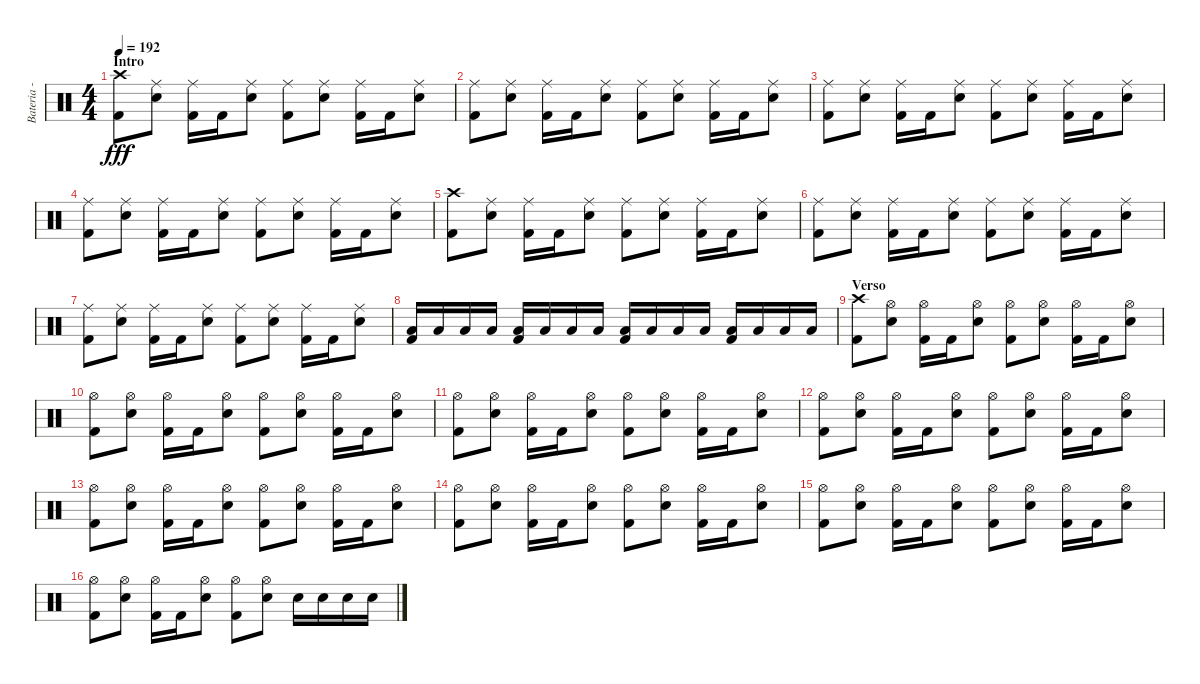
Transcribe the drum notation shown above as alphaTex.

\track ("Bateria - Larzon" "Bateria - ") {instrument percussion}
\staff {score}
\articulation defaults
\ts (4 4)
\section ("" "Intro")
\tempo 192
\clef neutral
\ks c
("Kick (hit) 2" "Crash high (hit)").8{dy fff} ("Electric Snare (hit)" "Ride (middle)").8 ("Ride (middle)" "Kick (hit) 2").16 "Kick (hit) 2".16 ("Electric Snare (hit)" "Ride (middle)").8 ("Kick (hit) 2" "Ride (middle)").8 ("Electric Snare (hit)" "Ride (middle)").8 ("Kick (hit) 2" "Ride (middle)").16 "Kick (hit) 2".16 ("Electric Snare (hit)" "Ride (middle)").8 |
("Kick (hit) 2" "Ride (middle)").8 ("Electric Snare (hit)" "Ride (middle)").8 ("Kick (hit) 2" "Ride (middle)").16 "Kick (hit) 2".16 ("Electric Snare (hit)" "Ride (middle)").8 ("Kick (hit) 2" "Ride (middle)").8 ("Electric Snare (hit)" "Ride (middle)").8 ("Kick (hit) 2" "Ride (middle)").16 "Kick (hit) 2".16 ("Electric Snare (hit)" "Ride (middle)").8 |
("Kick (hit) 2" "Ride (middle)").8 ("Electric Snare (hit)" "Ride (middle)").8 ("Kick (hit) 2" "Ride (middle)").16 "Kick (hit) 2".16 ("Electric Snare (hit)" "Ride (middle)").8 ("Kick (hit) 2" "Ride (middle)").8 ("Electric Snare (hit)" "Ride (middle)").8 ("Kick (hit) 2" "Ride (middle)").16 "Kick (hit) 2".16 ("Electric Snare (hit)" "Ride (middle)").8 |
("Kick (hit) 2" "Ride (middle)").8 ("Electric Snare (hit)" "Ride (middle)").8 ("Kick (hit) 2" "Ride (middle)").16 "Kick (hit) 2".16 ("Electric Snare (hit)" "Ride (middle)").8 ("Kick (hit) 2" "Ride (middle)").8 ("Electric Snare (hit)" "Ride (middle)").8 ("Kick (hit) 2" "Ride (middle)").16 "Kick (hit) 2".16 ("Electric Snare (hit)" "Ride (middle)").8 |
("Kick (hit) 2" "Crash high (hit)").8 ("Electric Snare (hit)" "Ride (middle)").8 ("Ride (middle)" "Kick (hit) 2").16 "Kick (hit) 2".16 ("Electric Snare (hit)" "Ride (middle)").8 ("Kick (hit) 2" "Ride (middle)").8 ("Electric Snare (hit)" "Ride (middle)").8 ("Kick (hit) 2" "Ride (middle)").16 "Kick (hit) 2".16 ("Electric Snare (hit)" "Ride (middle)").8 |
("Kick (hit) 2" "Ride (middle)").8 ("Electric Snare (hit)" "Ride (middle)").8 ("Kick (hit) 2" "Ride (middle)").16 "Kick (hit) 2".16 ("Electric Snare (hit)" "Ride (middle)").8 ("Kick (hit) 2" "Ride (middle)").8 ("Electric Snare (hit)" "Ride (middle)").8 ("Kick (hit) 2" "Ride (middle)").16 "Kick (hit) 2".16 ("Electric Snare (hit)" "Ride (middle)").8 |
("Kick (hit) 2" "Ride (middle)").8 ("Electric Snare (hit)" "Ride (middle)").8 ("Kick (hit) 2" "Ride (middle)").16 "Kick (hit) 2".16 ("Electric Snare (hit)" "Ride (middle)").8 ("Kick (hit) 2" "Ride (middle)").8 ("Electric Snare (hit)" "Ride (middle)").8 ("Kick (hit) 2" "Ride (middle)").16 "Kick (hit) 2".16 ("Electric Snare (hit)" "Ride (middle)").8 |
("Kick (hit) 2" "Low Tom (hit)").16 "Low Tom (hit)".16 "Low Tom (hit)".16 "Low Tom (hit)".16 ("Kick (hit) 2" "Low Tom (hit)").16 "Low Tom (hit)".16 "Low Tom (hit)".16 "Low Tom (hit)".16 ("Kick (hit) 2" "Low Tom (hit)").16 "Low Tom (hit)".16 "Low Tom (hit)".16 "Low Tom (hit)".16 ("Kick (hit) 2" "Low Tom (hit)").16 "Low Tom (hit)".16 "Low Tom (hit)".16 "Low Tom (hit)".16 |
\section ("" "Verso")
("Kick (hit) 2" "Crash high (hit)").8 ("Electric Snare (hit)" "Hi-Hat (open)").8 ("Kick (hit) 2" "Hi-Hat (open)").16 "Kick (hit) 2".16 ("Electric Snare (hit)" "Hi-Hat (open)").8 ("Kick (hit) 2" "Hi-Hat (open)").8 ("Electric Snare (hit)" "Hi-Hat (open)").8 ("Kick (hit) 2" "Hi-Hat (open)").16 "Kick (hit) 2".16 ("Electric Snare (hit)" "Hi-Hat (open)").8 |
("Kick (hit) 2" "Hi-Hat (open)").8 ("Electric Snare (hit)" "Hi-Hat (open)").8 ("Kick (hit) 2" "Hi-Hat (open)").16 "Kick (hit) 2".16 ("Electric Snare (hit)" "Hi-Hat (open)").8 ("Kick (hit) 2" "Hi-Hat (open)").8 ("Electric Snare (hit)" "Hi-Hat (open)").8 ("Kick (hit) 2" "Hi-Hat (open)").16 "Kick (hit) 2".16 ("Electric Snare (hit)" "Hi-Hat (open)").8 |
("Kick (hit) 2" "Hi-Hat (open)").8 ("Electric Snare (hit)" "Hi-Hat (open)").8 ("Kick (hit) 2" "Hi-Hat (open)").16 "Kick (hit) 2".16 ("Electric Snare (hit)" "Hi-Hat (open)").8 ("Kick (hit) 2" "Hi-Hat (open)").8 ("Electric Snare (hit)" "Hi-Hat (open)").8 ("Kick (hit) 2" "Hi-Hat (open)").16 "Kick (hit) 2".16 ("Electric Snare (hit)" "Hi-Hat (open)").8 |
("Kick (hit) 2" "Hi-Hat (open)").8 ("Electric Snare (hit)" "Hi-Hat (open)").8 ("Kick (hit) 2" "Hi-Hat (open)").16 "Kick (hit) 2".16 ("Electric Snare (hit)" "Hi-Hat (open)").8 ("Kick (hit) 2" "Hi-Hat (open)").8 ("Electric Snare (hit)" "Hi-Hat (open)").8 ("Kick (hit) 2" "Hi-Hat (open)").16 "Kick (hit) 2".16 ("Electric Snare (hit)" "Hi-Hat (open)").8 |
("Kick (hit) 2" "Hi-Hat (open)").8 ("Electric Snare (hit)" "Hi-Hat (open)").8 ("Kick (hit) 2" "Hi-Hat (open)").16 "Kick (hit) 2".16 ("Electric Snare (hit)" "Hi-Hat (open)").8 ("Kick (hit) 2" "Hi-Hat (open)").8 ("Electric Snare (hit)" "Hi-Hat (open)").8 ("Kick (hit) 2" "Hi-Hat (open)").16 "Kick (hit) 2".16 ("Electric Snare (hit)" "Hi-Hat (open)").8 |
("Kick (hit) 2" "Hi-Hat (open)").8 ("Electric Snare (hit)" "Hi-Hat (open)").8 ("Kick (hit) 2" "Hi-Hat (open)").16 "Kick (hit) 2".16 ("Electric Snare (hit)" "Hi-Hat (open)").8 ("Kick (hit) 2" "Hi-Hat (open)").8 ("Electric Snare (hit)" "Hi-Hat (open)").8 ("Kick (hit) 2" "Hi-Hat (open)").16 "Kick (hit) 2".16 ("Electric Snare (hit)" "Hi-Hat (open)").8 |
("Kick (hit) 2" "Hi-Hat (open)").8 ("Electric Snare (hit)" "Hi-Hat (open)").8 ("Kick (hit) 2" "Hi-Hat (open)").16 "Kick (hit) 2".16 ("Electric Snare (hit)" "Hi-Hat (open)").8 ("Kick (hit) 2" "Hi-Hat (open)").8 ("Electric Snare (hit)" "Hi-Hat (open)").8 ("Kick (hit) 2" "Hi-Hat (open)").16 "Kick (hit) 2".16 ("Electric Snare (hit)" "Hi-Hat (open)").8 |
("Kick (hit) 2" "Hi-Hat (open)").8 ("Electric Snare (hit)" "Hi-Hat (open)").8 ("Kick (hit) 2" "Hi-Hat (open)").16 "Kick (hit) 2".16 ("Electric Snare (hit)" "Hi-Hat (open)").8 ("Kick (hit) 2" "Hi-Hat (open)").8 ("Electric Snare (hit)" "Hi-Hat (open)").8 "Electric Snare (hit)".16 "Electric Snare (hit)".16 "Electric Snare (hit)".16 "Electric Snare (hit)".16
